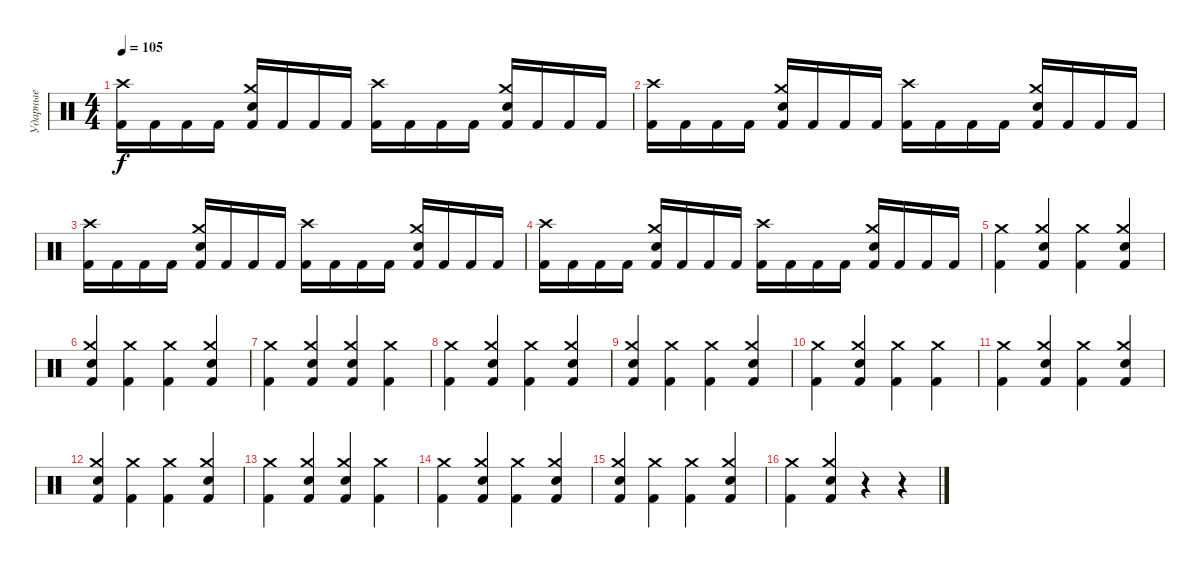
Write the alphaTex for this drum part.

\track ("Ударные" "Ударные") {instrument percussion}
\staff {score}
\articulation defaults
\ts (4 4)
\tempo 105
\clef neutral
\ks c
("Crash high (hit)" "Kick (hit) 2").16{dy f} "Kick (hit) 2".16 "Kick (hit) 2".16 "Kick (hit) 2".16 ("Crash medium (hit)" "Electric Snare (hit)" "Kick (hit) 2").16 "Kick (hit) 2".16 "Kick (hit) 2".16 "Kick (hit) 2".16 ("Crash high (hit)" "Kick (hit) 2").16 "Kick (hit) 2".16 "Kick (hit) 2".16 "Kick (hit) 2".16 ("Crash medium (hit)" "Electric Snare (hit)" "Kick (hit) 2").16 "Kick (hit) 2".16 "Kick (hit) 2".16 "Kick (hit) 2".16 |
("Crash high (hit)" "Kick (hit) 2").16 "Kick (hit) 2".16 "Kick (hit) 2".16 "Kick (hit) 2".16 ("Crash medium (hit)" "Electric Snare (hit)" "Kick (hit) 2").16 "Kick (hit) 2".16 "Kick (hit) 2".16 "Kick (hit) 2".16 ("Crash high (hit)" "Kick (hit) 2").16 "Kick (hit) 2".16 "Kick (hit) 2".16 "Kick (hit) 2".16 ("Crash medium (hit)" "Electric Snare (hit)" "Kick (hit) 2").16 "Kick (hit) 2".16 "Kick (hit) 2".16 "Kick (hit) 2".16 |
("Crash high (hit)" "Kick (hit) 2").16 "Kick (hit) 2".16 "Kick (hit) 2".16 "Kick (hit) 2".16 ("Crash medium (hit)" "Electric Snare (hit)" "Kick (hit) 2").16 "Kick (hit) 2".16 "Kick (hit) 2".16 "Kick (hit) 2".16 ("Crash high (hit)" "Kick (hit) 2").16 "Kick (hit) 2".16 "Kick (hit) 2".16 "Kick (hit) 2".16 ("Crash medium (hit)" "Electric Snare (hit)" "Kick (hit) 2").16 "Kick (hit) 2".16 "Kick (hit) 2".16 "Kick (hit) 2".16 |
("Crash high (hit)" "Kick (hit) 2").16 "Kick (hit) 2".16 "Kick (hit) 2".16 "Kick (hit) 2".16 ("Crash medium (hit)" "Electric Snare (hit)" "Kick (hit) 2").16 "Kick (hit) 2".16 "Kick (hit) 2".16 "Kick (hit) 2".16 ("Crash high (hit)" "Kick (hit) 2").16 "Kick (hit) 2".16 "Kick (hit) 2".16 "Kick (hit) 2".16 ("Crash medium (hit)" "Electric Snare (hit)" "Kick (hit) 2").16 "Kick (hit) 2".16 "Kick (hit) 2".16 "Kick (hit) 2".16 |
("Crash medium (hit)" "Kick (hit) 2").4 ("Crash medium (hit)" "Electric Snare (hit)" "Kick (hit) 2").4 ("Crash medium (hit)" "Kick (hit) 2").4 ("Crash medium (hit)" "Electric Snare (hit)" "Kick (hit) 2").4 |
("Crash medium (hit)" "Electric Snare (hit)" "Kick (hit) 2").4 ("Crash medium (hit)" "Kick (hit) 2").4 ("Crash medium (hit)" "Kick (hit) 2").4 ("Crash medium (hit)" "Electric Snare (hit)" "Kick (hit) 2").4 |
("Crash medium (hit)" "Kick (hit) 2").4 ("Crash medium (hit)" "Electric Snare (hit)" "Kick (hit) 2").4 ("Crash medium (hit)" "Electric Snare (hit)" "Kick (hit) 2").4 ("Crash medium (hit)" "Kick (hit) 2").4 |
("Crash medium (hit)" "Kick (hit) 2").4 ("Crash medium (hit)" "Electric Snare (hit)" "Kick (hit) 2").4 ("Crash medium (hit)" "Kick (hit) 2").4 ("Crash medium (hit)" "Electric Snare (hit)" "Kick (hit) 2").4 |
("Crash medium (hit)" "Electric Snare (hit)" "Kick (hit) 2").4 ("Crash medium (hit)" "Kick (hit) 2").4 ("Crash medium (hit)" "Kick (hit) 2").4 ("Crash medium (hit)" "Electric Snare (hit)" "Kick (hit) 2").4 |
("Crash medium (hit)" "Kick (hit) 2").4 ("Crash medium (hit)" "Electric Snare (hit)" "Kick (hit) 2").4 ("Crash medium (hit)" "Kick (hit) 2").4 ("Crash medium (hit)" "Kick (hit) 2").4 |
("Crash medium (hit)" "Kick (hit) 2").4 ("Crash medium (hit)" "Electric Snare (hit)" "Kick (hit) 2").4 ("Crash medium (hit)" "Kick (hit) 2").4 ("Crash medium (hit)" "Electric Snare (hit)" "Kick (hit) 2").4 |
("Crash medium (hit)" "Electric Snare (hit)" "Kick (hit) 2").4 ("Crash medium (hit)" "Kick (hit) 2").4 ("Crash medium (hit)" "Kick (hit) 2").4 ("Crash medium (hit)" "Electric Snare (hit)" "Kick (hit) 2").4 |
("Crash medium (hit)" "Kick (hit) 2").4 ("Crash medium (hit)" "Electric Snare (hit)" "Kick (hit) 2").4 ("Crash medium (hit)" "Electric Snare (hit)" "Kick (hit) 2").4 ("Crash medium (hit)" "Kick (hit) 2").4 |
("Crash medium (hit)" "Kick (hit) 2").4 ("Crash medium (hit)" "Electric Snare (hit)" "Kick (hit) 2").4 ("Crash medium (hit)" "Kick (hit) 2").4 ("Crash medium (hit)" "Electric Snare (hit)" "Kick (hit) 2").4 |
("Crash medium (hit)" "Electric Snare (hit)" "Kick (hit) 2").4 ("Crash medium (hit)" "Kick (hit) 2").4 ("Crash medium (hit)" "Kick (hit) 2").4 ("Crash medium (hit)" "Electric Snare (hit)" "Kick (hit) 2").4 |
("Crash medium (hit)" "Kick (hit) 2").4 ("Crash medium (hit)" "Electric Snare (hit)" "Kick (hit) 2").4 r.4 r.4
